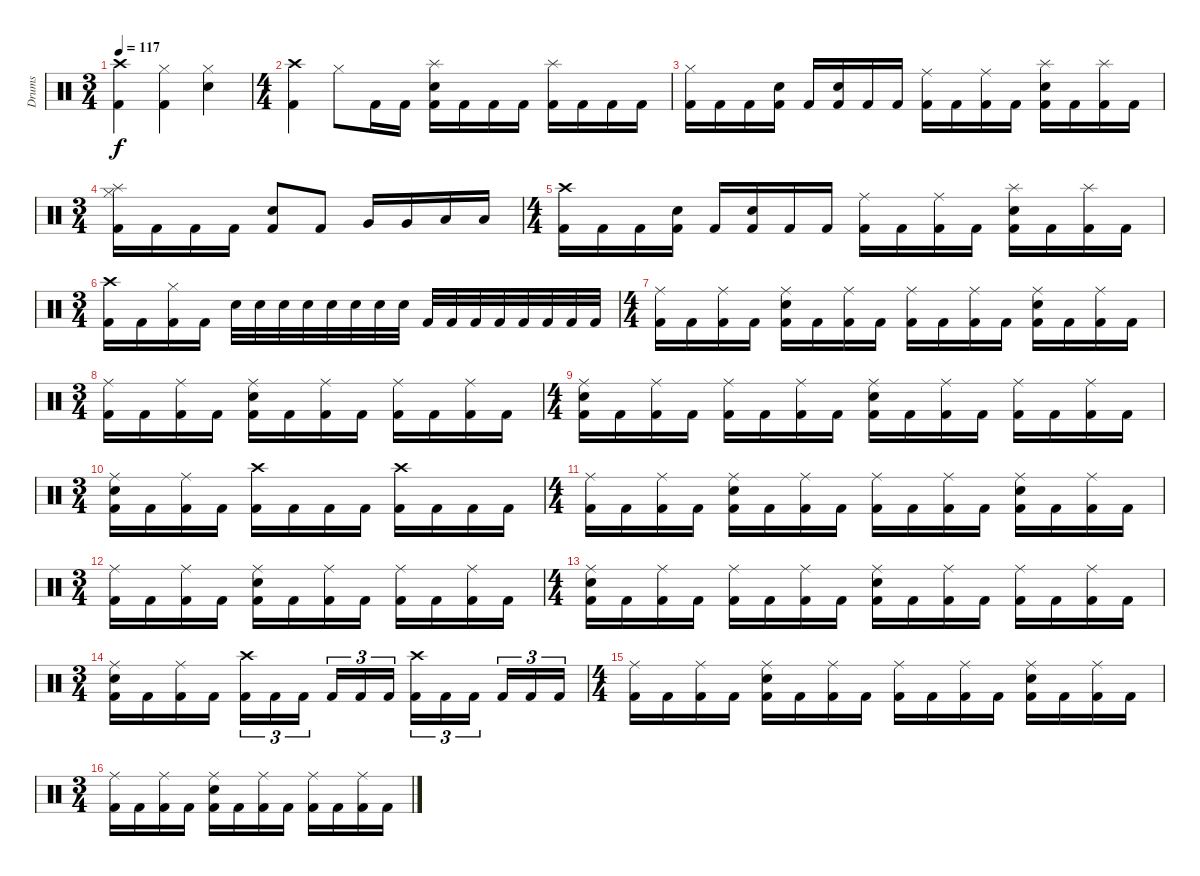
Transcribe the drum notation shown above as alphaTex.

\track ("Drums" "Drums") {instrument percussion}
\staff {score}
\articulation defaults
\ts (3 4)
\tempo 117
\clef neutral
\ks c
("Crash high (hit)" "Kick (hit) 2").4{dy f} ("Hi-Hat (closed)" "Kick (hit) 2").4 ("Hi-Hat (closed)" "Electric Snare (hit)").4 |
\ts (4 4)
("Crash high (hit)" "Kick (hit) 2").4 "Hi-Hat (closed)".8 "Kick (hit) 2".16 "Kick (hit) 2".16 ("Splash (hit)" "Electric Snare (hit)" "Kick (hit) 2").16 "Kick (hit) 2".16 "Kick (hit) 2".16 "Kick (hit) 2".16 ("Splash (hit)" "Kick (hit) 2").16 "Kick (hit) 2".16 "Kick (hit) 2".16 "Kick (hit) 2".16 |
("Hi-Hat (closed)" "Kick (hit) 2").16 "Kick (hit) 2".16 "Kick (hit) 2".16 ("Electric Snare (hit)" "Kick (hit) 2").16 "Kick (hit) 2".16 ("Electric Snare (hit)" "Kick (hit) 2").16 "Kick (hit) 2".16 "Kick (hit) 2".16 ("Ride (middle)" "Kick (hit) 2").16 "Kick (hit) 2".16 ("Ride (middle)" "Kick (hit) 2").16 "Kick (hit) 2".16 ("Splash (hit)" "Electric Snare (hit)" "Kick (hit) 2").16 "Kick (hit) 2".16 ("Splash (hit)" "Kick (hit) 2").16 "Kick (hit) 2".16 |
\ts (3 4)
("Splash (hit)" "Hi-Hat (closed)" "Kick (hit) 2").16 "Kick (hit) 2".16 "Kick (hit) 2".16 "Kick (hit) 2".16 ("Electric Snare (hit)" "Kick (hit) 2").8 "Kick (hit) 2".8 "Very Low Tom (hit)".16 "Very Low Tom (hit)".16 "Low Floor Tom (hit)".16 "Low Floor Tom (hit)".16 |
\ts (4 4)
("Crash high (hit)" "Kick (hit) 2").16 "Kick (hit) 2".16 "Kick (hit) 2".16 ("Electric Snare (hit)" "Kick (hit) 2").16 "Kick (hit) 2".16 ("Electric Snare (hit)" "Kick (hit) 2").16 "Kick (hit) 2".16 "Kick (hit) 2".16 ("Ride (middle)" "Kick (hit) 2").16 "Kick (hit) 2".16 ("Ride (middle)" "Kick (hit) 2").16 "Kick (hit) 2".16 ("Splash (hit)" "Electric Snare (hit)" "Kick (hit) 2").16 "Kick (hit) 2".16 ("Splash (hit)" "Kick (hit) 2").16 "Kick (hit) 2".16 |
\ts (3 4)
("Crash high (hit)" "Kick (hit) 2").16 "Kick (hit) 2".16 ("Hi-Hat (closed)" "Kick (hit) 2").16 "Kick (hit) 2".16 "Electric Snare (hit)".32 "Electric Snare (hit)".32 "Electric Snare (hit)".32 "Electric Snare (hit)".32 "Electric Snare (hit)".32 "Electric Snare (hit)".32 "Electric Snare (hit)".32 "Electric Snare (hit)".32 "Kick (hit) 2".32 "Kick (hit) 2".32 "Kick (hit) 2".32 "Kick (hit) 2".32 "Kick (hit) 2".32 "Kick (hit) 2".32 "Kick (hit) 2".32 "Kick (hit) 2".32 |
\ts (4 4)
("Ride (middle)" "Kick (hit) 2").16 "Kick (hit) 2".16 ("Ride (middle)" "Kick (hit) 2").16 "Kick (hit) 2".16 ("Ride (middle)" "Electric Snare (hit)" "Kick (hit) 2").16 "Kick (hit) 2".16 ("Ride (middle)" "Kick (hit) 2").16 "Kick (hit) 2".16 ("Ride (middle)" "Kick (hit) 2").16 "Kick (hit) 2".16 ("Ride (middle)" "Kick (hit) 2").16 "Kick (hit) 2".16 ("Ride (middle)" "Electric Snare (hit)" "Kick (hit) 2").16 "Kick (hit) 2".16 ("Ride (middle)" "Kick (hit) 2").16 "Kick (hit) 2".16 |
\ts (3 4)
("Ride (middle)" "Kick (hit) 2").16 "Kick (hit) 2".16 ("Ride (middle)" "Kick (hit) 2").16 "Kick (hit) 2".16 ("Ride (middle)" "Electric Snare (hit)" "Kick (hit) 2").16 "Kick (hit) 2".16 ("Ride (middle)" "Kick (hit) 2").16 "Kick (hit) 2".16 ("Ride (middle)" "Kick (hit) 2").16 "Kick (hit) 2".16 ("Ride (middle)" "Kick (hit) 2").16 "Kick (hit) 2".16 |
\ts (4 4)
("Ride (middle)" "Electric Snare (hit)" "Kick (hit) 2").16 "Kick (hit) 2".16 ("Ride (middle)" "Kick (hit) 2").16 "Kick (hit) 2".16 ("Ride (middle)" "Kick (hit) 2").16 "Kick (hit) 2".16 ("Ride (middle)" "Kick (hit) 2").16 "Kick (hit) 2".16 ("Ride (middle)" "Electric Snare (hit)" "Kick (hit) 2").16 "Kick (hit) 2".16 ("Ride (middle)" "Kick (hit) 2").16 "Kick (hit) 2".16 ("Ride (middle)" "Kick (hit) 2").16 "Kick (hit) 2".16 ("Ride (middle)" "Kick (hit) 2").16 "Kick (hit) 2".16 |
\ts (3 4)
("Ride (middle)" "Electric Snare (hit)" "Kick (hit) 2").16 "Kick (hit) 2".16 ("Ride (middle)" "Kick (hit) 2").16 "Kick (hit) 2".16 ("Crash high (hit)" "Kick (hit) 2").16 "Kick (hit) 2".16 "Kick (hit) 2".16 "Kick (hit) 2".16 ("Crash high (hit)" "Kick (hit) 2").16 "Kick (hit) 2".16 "Kick (hit) 2".16 "Kick (hit) 2".16 |
\ts (4 4)
("Ride (middle)" "Kick (hit) 2").16 "Kick (hit) 2".16 ("Ride (middle)" "Kick (hit) 2").16 "Kick (hit) 2".16 ("Ride (middle)" "Electric Snare (hit)" "Kick (hit) 2").16 "Kick (hit) 2".16 ("Ride (middle)" "Kick (hit) 2").16 "Kick (hit) 2".16 ("Ride (middle)" "Kick (hit) 2").16 "Kick (hit) 2".16 ("Ride (middle)" "Kick (hit) 2").16 "Kick (hit) 2".16 ("Ride (middle)" "Electric Snare (hit)" "Kick (hit) 2").16 "Kick (hit) 2".16 ("Ride (middle)" "Kick (hit) 2").16 "Kick (hit) 2".16 |
\ts (3 4)
("Ride (middle)" "Kick (hit) 2").16 "Kick (hit) 2".16 ("Ride (middle)" "Kick (hit) 2").16 "Kick (hit) 2".16 ("Ride (middle)" "Electric Snare (hit)" "Kick (hit) 2").16 "Kick (hit) 2".16 ("Ride (middle)" "Kick (hit) 2").16 "Kick (hit) 2".16 ("Ride (middle)" "Kick (hit) 2").16 "Kick (hit) 2".16 ("Ride (middle)" "Kick (hit) 2").16 "Kick (hit) 2".16 |
\ts (4 4)
("Ride (middle)" "Electric Snare (hit)" "Kick (hit) 2").16 "Kick (hit) 2".16 ("Ride (middle)" "Kick (hit) 2").16 "Kick (hit) 2".16 ("Ride (middle)" "Kick (hit) 2").16 "Kick (hit) 2".16 ("Ride (middle)" "Kick (hit) 2").16 "Kick (hit) 2".16 ("Ride (middle)" "Electric Snare (hit)" "Kick (hit) 2").16 "Kick (hit) 2".16 ("Ride (middle)" "Kick (hit) 2").16 "Kick (hit) 2".16 ("Ride (middle)" "Kick (hit) 2").16 "Kick (hit) 2".16 ("Ride (middle)" "Kick (hit) 2").16 "Kick (hit) 2".16 |
\ts (3 4)
("Ride (middle)" "Electric Snare (hit)" "Kick (hit) 2").16 "Kick (hit) 2".16 ("Ride (middle)" "Kick (hit) 2").16 "Kick (hit) 2".16 ("Crash high (hit)" "Kick (hit) 2").16{tu (3 2)} "Kick (hit) 2".16{tu (3 2)} "Kick (hit) 2".16{tu (3 2)} "Kick (hit) 2".16{tu (3 2)} "Kick (hit) 2".16{tu (3 2)} "Kick (hit) 2".16{tu (3 2)} ("Crash high (hit)" "Kick (hit) 2").16{tu (3 2)} "Kick (hit) 2".16{tu (3 2)} "Kick (hit) 2".16{tu (3 2)} "Kick (hit) 2".16{tu (3 2)} "Kick (hit) 2".16{tu (3 2)} "Kick (hit) 2".16{tu (3 2)} |
\ts (4 4)
("Ride (middle)" "Kick (hit) 2").16 "Kick (hit) 2".16 ("Ride (middle)" "Kick (hit) 2").16 "Kick (hit) 2".16 ("Ride (middle)" "Electric Snare (hit)" "Kick (hit) 2").16 "Kick (hit) 2".16 ("Ride (middle)" "Kick (hit) 2").16 "Kick (hit) 2".16 ("Ride (middle)" "Kick (hit) 2").16 "Kick (hit) 2".16 ("Ride (middle)" "Kick (hit) 2").16 "Kick (hit) 2".16 ("Ride (middle)" "Electric Snare (hit)" "Kick (hit) 2").16 "Kick (hit) 2".16 ("Ride (middle)" "Kick (hit) 2").16 "Kick (hit) 2".16 |
\ts (3 4)
("Ride (middle)" "Kick (hit) 2").16 "Kick (hit) 2".16 ("Ride (middle)" "Kick (hit) 2").16 "Kick (hit) 2".16 ("Ride (middle)" "Electric Snare (hit)" "Kick (hit) 2").16 "Kick (hit) 2".16 ("Ride (middle)" "Kick (hit) 2").16 "Kick (hit) 2".16 ("Ride (middle)" "Kick (hit) 2").16 "Kick (hit) 2".16 ("Ride (middle)" "Kick (hit) 2").16 "Kick (hit) 2".16
